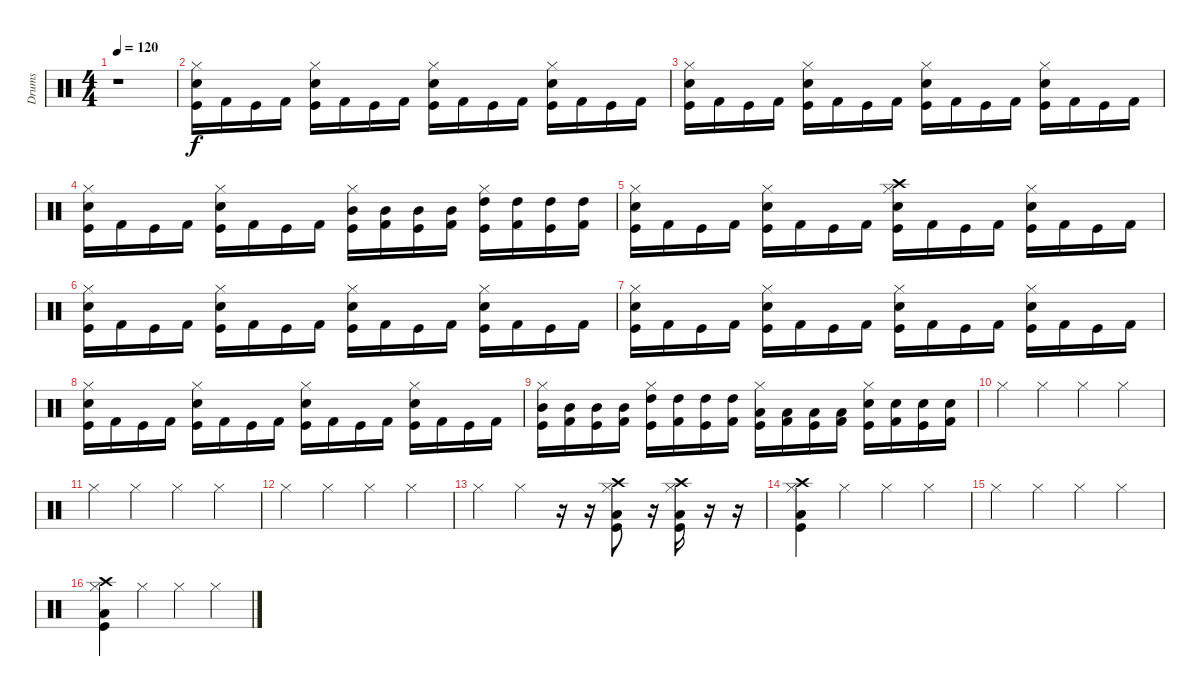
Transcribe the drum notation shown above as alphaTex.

\track ("Drums" "Drums") {instrument percussion}
\staff {score}
\articulation defaults
\ts (4 4)
\tempo 120
\clef neutral
\ks c
r.1{dy f} |
("Hi-Hat (closed)" "Snare (hit) 2" "Kick (hit)").16 "Kick (hit) 2".16 "Kick (hit)".16 "Kick (hit) 2".16 ("Hi-Hat (closed)" "Snare (hit) 2" "Kick (hit)").16 "Kick (hit) 2".16 "Kick (hit)".16 "Kick (hit) 2".16 ("Hi-Hat (closed)" "Snare (hit) 2" "Kick (hit)").16 "Kick (hit) 2".16 "Kick (hit)".16 "Kick (hit) 2".16 ("Hi-Hat (closed)" "Snare (hit) 2" "Kick (hit)").16 "Kick (hit) 2".16 "Kick (hit)".16 "Kick (hit) 2".16 |
("Hi-Hat (closed)" "Snare (hit) 2" "Kick (hit)").16 "Kick (hit) 2".16 "Kick (hit)".16 "Kick (hit) 2".16 ("Hi-Hat (closed)" "Snare (hit) 2" "Kick (hit)").16 "Kick (hit) 2".16 "Kick (hit)".16 "Kick (hit) 2".16 ("Hi-Hat (closed)" "Snare (hit) 2" "Kick (hit)").16 "Kick (hit) 2".16 "Kick (hit)".16 "Kick (hit) 2".16 ("Hi-Hat (closed)" "Snare (hit) 2" "Kick (hit)").16 "Kick (hit) 2".16 "Kick (hit)".16 "Kick (hit) 2".16 |
("Hi-Hat (closed)" "Snare (hit) 2" "Kick (hit)").16 "Kick (hit) 2".16 "Kick (hit)".16 "Kick (hit) 2".16 ("Hi-Hat (closed)" "Snare (hit) 2" "Kick (hit)").16 "Kick (hit) 2".16 "Kick (hit)".16 "Kick (hit) 2".16 ("Hi-Hat (closed)" "Mid Tom (hit)" "Kick (hit)").16 ("Mid Tom (hit)" "Kick (hit) 2").16 ("Mid Tom (hit)" "Kick (hit)").16 ("Mid Tom (hit)" "Kick (hit) 2").16 ("Hi-Hat (closed)" "High Tom (hit)" "Kick (hit)").16 ("High Tom (hit)" "Kick (hit) 2").16 ("High Tom (hit)" "Kick (hit)").16 ("High Tom (hit)" "Kick (hit) 2").16 |
("Hi-Hat (closed)" "Snare (hit) 2" "Kick (hit)").16 "Kick (hit) 2".16 "Kick (hit)".16 "Kick (hit) 2".16 ("Hi-Hat (closed)" "Snare (hit) 2" "Kick (hit)").16 "Kick (hit) 2".16 "Kick (hit)".16 "Kick (hit) 2".16 ("Hi-Hat (closed)" "Crash high (hit)" "Snare (hit) 2" "Kick (hit)").16 "Kick (hit) 2".16 "Kick (hit)".16 "Kick (hit) 2".16 ("Hi-Hat (closed)" "Snare (hit) 2" "Kick (hit)").16 "Kick (hit) 2".16 "Kick (hit)".16 "Kick (hit) 2".16 |
("Hi-Hat (closed)" "Snare (hit) 2" "Kick (hit)").16 "Kick (hit) 2".16 "Kick (hit)".16 "Kick (hit) 2".16 ("Hi-Hat (closed)" "Snare (hit) 2" "Kick (hit)").16 "Kick (hit) 2".16 "Kick (hit)".16 "Kick (hit) 2".16 ("Hi-Hat (closed)" "Snare (hit) 2" "Kick (hit)").16 "Kick (hit) 2".16 "Kick (hit)".16 "Kick (hit) 2".16 ("Hi-Hat (closed)" "Snare (hit) 2" "Kick (hit)").16 "Kick (hit) 2".16 "Kick (hit)".16 "Kick (hit) 2".16 |
("Hi-Hat (closed)" "Snare (hit) 2" "Kick (hit)").16 "Kick (hit) 2".16 "Kick (hit)".16 "Kick (hit) 2".16 ("Hi-Hat (closed)" "Snare (hit) 2" "Kick (hit)").16 "Kick (hit) 2".16 "Kick (hit)".16 "Kick (hit) 2".16 ("Hi-Hat (closed)" "Snare (hit) 2" "Kick (hit)").16 "Kick (hit) 2".16 "Kick (hit)".16 "Kick (hit) 2".16 ("Hi-Hat (closed)" "Snare (hit) 2" "Kick (hit)").16 "Kick (hit) 2".16 "Kick (hit)".16 "Kick (hit) 2".16 |
("Hi-Hat (closed)" "Snare (hit) 2" "Kick (hit)").16 "Kick (hit) 2".16 "Kick (hit)".16 "Kick (hit) 2".16 ("Hi-Hat (closed)" "Snare (hit) 2" "Kick (hit)").16 "Kick (hit) 2".16 "Kick (hit)".16 "Kick (hit) 2".16 ("Hi-Hat (closed)" "Snare (hit) 2" "Kick (hit)").16 "Kick (hit) 2".16 "Kick (hit)".16 "Kick (hit) 2".16 ("Hi-Hat (closed)" "Snare (hit) 2" "Kick (hit)").16 "Kick (hit) 2".16 "Kick (hit)".16 "Kick (hit) 2".16 |
("Hi-Hat (closed)" "Mid Tom (hit)" "Kick (hit)").16 ("Mid Tom (hit)" "Kick (hit) 2").16 ("Mid Tom (hit)" "Kick (hit)").16 ("Mid Tom (hit)" "Kick (hit) 2").16 ("Hi-Hat (closed)" "High Tom (hit)" "Kick (hit)").16 ("High Tom (hit)" "Kick (hit) 2").16 ("High Tom (hit)" "Kick (hit)").16 ("High Tom (hit)" "Kick (hit) 2").16 ("Hi-Hat (closed)" "Low Tom (hit)" "Kick (hit)").16 ("Low Tom (hit)" "Kick (hit) 2").16 ("Low Tom (hit)" "Kick (hit)").16 ("Low Tom (hit)" "Kick (hit) 2").16 ("Hi-Hat (closed)" "Snare (hit) 2" "Kick (hit)").16 ("Snare (hit) 2" "Kick (hit) 2").16 ("Snare (hit) 2" "Kick (hit)").16 ("Snare (hit) 2" "Kick (hit) 2").16 |
"Hi-Hat (closed)".4 "Hi-Hat (closed)".4 "Hi-Hat (closed)".4 "Hi-Hat (closed)".4 |
"Hi-Hat (closed)".4 "Hi-Hat (closed)".4 "Hi-Hat (closed)".4 "Hi-Hat (closed)".4 |
"Hi-Hat (closed)".4 "Hi-Hat (closed)".4 "Hi-Hat (closed)".4 "Hi-Hat (closed)".4 |
"Hi-Hat (closed)".4 "Hi-Hat (closed)".4 r.16 r.16 ("Hi-Hat (closed)" "Crash high (hit)" "Low Tom (hit)" "Kick (hit)").8 r.16 ("Hi-Hat (closed)" "Crash high (hit)" "Low Tom (hit)" "Kick (hit)").16 r.16 r.16 |
("Hi-Hat (closed)" "Crash high (hit)" "Low Tom (hit)" "Kick (hit)").4 "Hi-Hat (closed)".4 "Hi-Hat (closed)".4 "Hi-Hat (closed)".4 |
"Hi-Hat (closed)".4 "Hi-Hat (closed)".4 "Hi-Hat (closed)".4 "Hi-Hat (closed)".4 |
("Hi-Hat (closed)" "Crash high (hit)" "Low Tom (hit)" "Kick (hit)").4 "Hi-Hat (closed)".4 "Hi-Hat (closed)".4 "Hi-Hat (closed)".4
